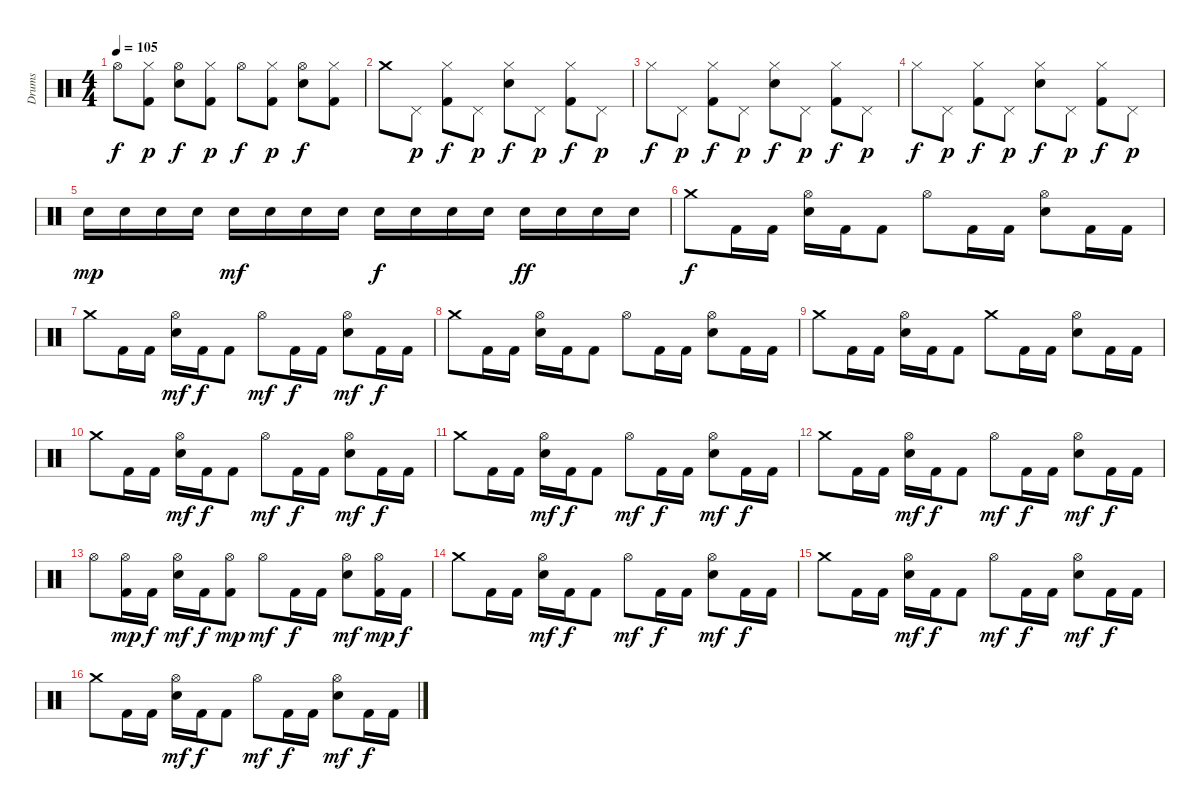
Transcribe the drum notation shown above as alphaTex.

\track ("Drums" "Drums") {instrument percussion}
\staff {score}
\articulation defaults
\ts (4 4)
\tempo 105
\clef neutral
\ks c "Hi-Hat (open)".8{dy f}
("Hi-Hat (closed)" "Kick (hit) 2").8{dy p} ("Electric Snare (hit)" "Hi-Hat (open)").8{dy f} ("Hi-Hat (closed)" "Kick (hit) 2").8{dy p} "Hi-Hat (open)".8{dy f} ("Hi-Hat (closed)" "Kick (hit) 2").8{dy p} ("Electric Snare (hit)" "Hi-Hat (open)").8{dy f} ("Hi-Hat (closed)" "Kick (hit) 2").8 |
"Crash medium (hit)".8 "Pedal Hi-Hat (hit)".8{dy p} ("Hi-Hat (closed)" "Kick (hit) 2").8{dy f} "Pedal Hi-Hat (hit)".8{dy p} ("Hi-Hat (closed)" "Electric Snare (hit)").8{dy f} "Pedal Hi-Hat (hit)".8{dy p} ("Hi-Hat (closed)" "Kick (hit) 2").8{dy f} "Pedal Hi-Hat (hit)".8{dy p} |
"Hi-Hat (closed)".8{dy f} "Pedal Hi-Hat (hit)".8{dy p} ("Hi-Hat (closed)" "Kick (hit) 2").8{dy f} "Pedal Hi-Hat (hit)".8{dy p} ("Hi-Hat (closed)" "Electric Snare (hit)").8{dy f} "Pedal Hi-Hat (hit)".8{dy p} ("Hi-Hat (closed)" "Kick (hit) 2").8{dy f} "Pedal Hi-Hat (hit)".8{dy p} |
"Hi-Hat (closed)".8{dy f} "Pedal Hi-Hat (hit)".8{dy p} ("Hi-Hat (closed)" "Kick (hit) 2").8{dy f} "Pedal Hi-Hat (hit)".8{dy p} ("Hi-Hat (closed)" "Electric Snare (hit)").8{dy f} "Pedal Hi-Hat (hit)".8{dy p} ("Hi-Hat (closed)" "Kick (hit) 2").8{dy f} "Pedal Hi-Hat (hit)".8{dy p} |
"Electric Snare (hit)".16{dy mp} "Electric Snare (hit)".16 "Electric Snare (hit)".16 "Electric Snare (hit)".16 "Electric Snare (hit)".16{dy mf} "Electric Snare (hit)".16 "Electric Snare (hit)".16 "Electric Snare (hit)".16 "Electric Snare (hit)".16{dy f} "Electric Snare (hit)".16 "Electric Snare (hit)".16 "Electric Snare (hit)".16 "Electric Snare (hit)".16{dy ff} "Electric Snare (hit)".16 "Electric Snare (hit)".16 "Electric Snare (hit)".16 |
"Crash medium (hit)".8{dy f} "Kick (hit) 2".16 "Kick (hit) 2".16 ("Hi-Hat (open)" "Electric Snare (hit)").16 "Kick (hit) 2".16 "Kick (hit) 2".8 "Hi-Hat (open)".8 "Kick (hit) 2".16 "Kick (hit) 2".16 ("Hi-Hat (open)" "Electric Snare (hit)").8 "Kick (hit) 2".16 "Kick (hit) 2".16 |
"Crash medium (hit)".8 "Kick (hit) 2".16 "Kick (hit) 2".16 ("Hi-Hat (open)" "Electric Snare (hit)").16{dy mf} "Kick (hit) 2".16{dy f} "Kick (hit) 2".8 "Hi-Hat (open)".8{dy mf} "Kick (hit) 2".16{dy f} "Kick (hit) 2".16 ("Hi-Hat (open)" "Electric Snare (hit)").8{dy mf} "Kick (hit) 2".16{dy f} "Kick (hit) 2".16 |
"Crash medium (hit)".8 "Kick (hit) 2".16 "Kick (hit) 2".16 ("Hi-Hat (open)" "Electric Snare (hit)").16 "Kick (hit) 2".16 "Kick (hit) 2".8 "Hi-Hat (open)".8 "Kick (hit) 2".16 "Kick (hit) 2".16 ("Hi-Hat (open)" "Electric Snare (hit)").8 "Kick (hit) 2".16 "Kick (hit) 2".16 |
"Crash medium (hit)".8 "Kick (hit) 2".16 "Kick (hit) 2".16 ("Hi-Hat (open)" "Electric Snare (hit)").16 "Kick (hit) 2".16 "Kick (hit) 2".8 "Crash medium (hit)".8 "Kick (hit) 2".16 "Kick (hit) 2".16 ("Hi-Hat (open)" "Electric Snare (hit)").8 "Kick (hit) 2".16 "Kick (hit) 2".16 |
"Crash medium (hit)".8 "Kick (hit) 2".16 "Kick (hit) 2".16 ("Hi-Hat (open)" "Electric Snare (hit)").16{dy mf} "Kick (hit) 2".16{dy f} "Kick (hit) 2".8 "Hi-Hat (open)".8{dy mf} "Kick (hit) 2".16{dy f} "Kick (hit) 2".16 ("Hi-Hat (open)" "Electric Snare (hit)").8{dy mf} "Kick (hit) 2".16{dy f} "Kick (hit) 2".16 |
"Crash medium (hit)".8 "Kick (hit) 2".16 "Kick (hit) 2".16 ("Hi-Hat (open)" "Electric Snare (hit)").16{dy mf} "Kick (hit) 2".16{dy f} "Kick (hit) 2".8 "Hi-Hat (open)".8{dy mf} "Kick (hit) 2".16{dy f} "Kick (hit) 2".16 ("Hi-Hat (open)" "Electric Snare (hit)").8{dy mf} "Kick (hit) 2".16{dy f} "Kick (hit) 2".16 |
"Crash medium (hit)".8 "Kick (hit) 2".16 "Kick (hit) 2".16 ("Hi-Hat (open)" "Electric Snare (hit)").16{dy mf} "Kick (hit) 2".16{dy f} "Kick (hit) 2".8 "Hi-Hat (open)".8{dy mf} "Kick (hit) 2".16{dy f} "Kick (hit) 2".16 ("Hi-Hat (open)" "Electric Snare (hit)").8{dy mf} "Kick (hit) 2".16{dy f} "Kick (hit) 2".16 |
"Hi-Hat (open)".8 ("Hi-Hat (open)" "Kick (hit) 2").16{dy mp} "Kick (hit) 2".16{dy f} ("Hi-Hat (open)" "Electric Snare (hit)").16{dy mf} "Kick (hit) 2".16{dy f} ("Hi-Hat (open)" "Kick (hit) 2").8{dy mp} "Hi-Hat (open)".8{dy mf} "Kick (hit) 2".16{dy f} "Kick (hit) 2".16 ("Hi-Hat (open)" "Electric Snare (hit)").8{dy mf} ("Hi-Hat (open)" "Kick (hit) 2").16{dy mp} "Kick (hit) 2".16{dy f} |
"Crash medium (hit)".8 "Kick (hit) 2".16 "Kick (hit) 2".16 ("Hi-Hat (open)" "Electric Snare (hit)").16{dy mf} "Kick (hit) 2".16{dy f} "Kick (hit) 2".8 "Hi-Hat (open)".8{dy mf} "Kick (hit) 2".16{dy f} "Kick (hit) 2".16 ("Hi-Hat (open)" "Electric Snare (hit)").8{dy mf} "Kick (hit) 2".16{dy f} "Kick (hit) 2".16 |
"Crash medium (hit)".8 "Kick (hit) 2".16 "Kick (hit) 2".16 ("Hi-Hat (open)" "Electric Snare (hit)").16{dy mf} "Kick (hit) 2".16{dy f} "Kick (hit) 2".8 "Hi-Hat (open)".8{dy mf} "Kick (hit) 2".16{dy f} "Kick (hit) 2".16 ("Hi-Hat (open)" "Electric Snare (hit)").8{dy mf} "Kick (hit) 2".16{dy f} "Kick (hit) 2".16 |
"Crash medium (hit)".8 "Kick (hit) 2".16 "Kick (hit) 2".16 ("Hi-Hat (open)" "Electric Snare (hit)").16{dy mf} "Kick (hit) 2".16{dy f} "Kick (hit) 2".8 "Hi-Hat (open)".8{dy mf} "Kick (hit) 2".16{dy f} "Kick (hit) 2".16 ("Hi-Hat (open)" "Electric Snare (hit)").8{dy mf} "Kick (hit) 2".16{dy f} "Kick (hit) 2".16
